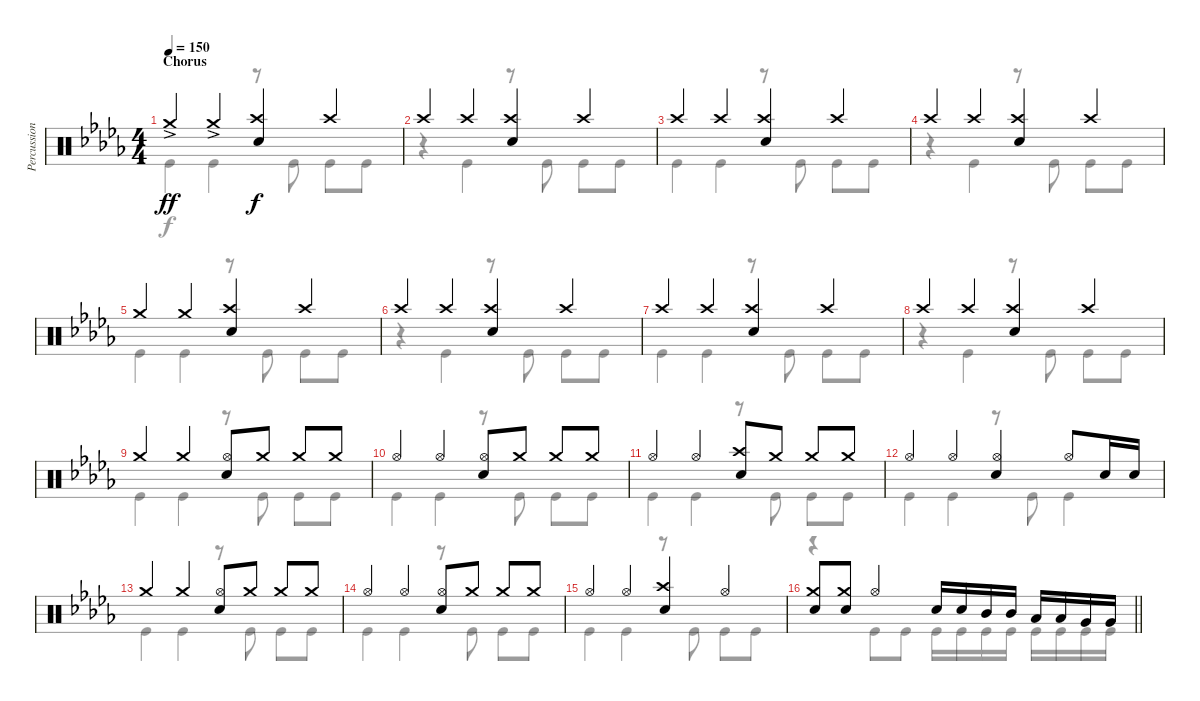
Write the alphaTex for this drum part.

\track ("Percussion" "Percussion") {instrument percussion}
\staff {score}
\articulation defaults
\voice
\ts (4 4)
\section ("" "Chorus")
\tempo 150
\clef neutral
\ks bbminor "Crash medium (hit)"{ac}.4{dy ff} "Crash medium (hit)"{ac}.4
("Crash high (hit)" "Electric Snare (hit)").4{dy f} "Crash high (hit)".4 |
"Crash high (hit)".4 "Crash high (hit)".4 ("Crash high (hit)" "Electric Snare (hit)").4 "Crash high (hit)".4 |
"Crash high (hit)".4 "Crash high (hit)".4 ("Crash high (hit)" "Electric Snare (hit)").4 "Crash high (hit)".4 |
"Crash high (hit)".4 "Crash high (hit)".4 ("Crash high (hit)" "Electric Snare (hit)").4 "Crash high (hit)".4 |
"Crash medium (hit)".4 "Crash medium (hit)".4 ("Crash high (hit)" "Electric Snare (hit)").4 "Crash high (hit)".4 |
"Crash high (hit)".4 "Crash high (hit)".4 ("Crash high (hit)" "Electric Snare (hit)").4 "Crash high (hit)".4 |
"Crash high (hit)".4 "Crash high (hit)".4 ("Crash high (hit)" "Electric Snare (hit)").4 "Crash high (hit)".4 |
"Crash high (hit)".4 "Crash high (hit)".4 ("Crash high (hit)" "Electric Snare (hit)").4 "Crash high (hit)".4 |
"Crash medium (hit)".4 "Crash medium (hit)".4 ("Hi-Hat (open)" "Electric Snare (hit)").8 "Crash medium (hit)".8 "Crash medium (hit)".8 "Crash medium (hit)".8 |
"Hi-Hat (open)".4 "Hi-Hat (open)".4 ("Hi-Hat (open)" "Electric Snare (hit)").8 "Crash medium (hit)".8 "Crash medium (hit)".8 "Crash medium (hit)".8 |
"Hi-Hat (open)".4 "Hi-Hat (open)".4 ("Crash high (hit)" "Electric Snare (hit)").8 "Crash medium (hit)".8 "Crash medium (hit)".8 "Crash medium (hit)".8 |
"Hi-Hat (open)".4 "Hi-Hat (open)".4 ("Hi-Hat (open)" "Electric Snare (hit)").4 "Hi-Hat (open)".8 "Electric Snare (hit)".16 "Electric Snare (hit)".16 |
"Crash medium (hit)".4 "Crash medium (hit)".4 ("Hi-Hat (open)" "Electric Snare (hit)").8 "Crash medium (hit)".8 "Crash medium (hit)".8 "Crash medium (hit)".8 |
"Hi-Hat (open)".4 "Hi-Hat (open)".4 ("Hi-Hat (open)" "Electric Snare (hit)").8 "Crash medium (hit)".8 "Crash medium (hit)".8 "Crash medium (hit)".8 |
"Hi-Hat (open)".4 "Hi-Hat (open)".4 ("Crash high (hit)" "Electric Snare (hit)").4 "Hi-Hat (open)".4 |
\barLineRight lightlight
("Crash medium (hit)" "Electric Snare (hit)").8 ("Crash medium (hit)" "Electric Snare (hit)").8 "Hi-Hat (open)".4 "Electric Snare (hit)".16 "Electric Snare (hit)".16 "Mid Tom (hit)".16 "Mid Tom (hit)".16 "Low Tom (hit)".16 "Low Tom (hit)".16 "Very Low Tom (hit)".16 "Very Low Tom (hit)".16
\voice
\clef neutral
\ottava regular
\simile none
\ks bbminor "Kick (hit)".4{dy f} "Kick (hit)".4
r.8 "Kick (hit)".8 "Kick (hit)".8 "Kick (hit)".8 |
r.4 "Kick (hit)".4 r.8 "Kick (hit)".8 "Kick (hit)".8 "Kick (hit)".8 |
"Kick (hit)".4 "Kick (hit)".4 r.8 "Kick (hit)".8 "Kick (hit)".8 "Kick (hit)".8 |
r.4 "Kick (hit)".4 r.8 "Kick (hit)".8 "Kick (hit)".8 "Kick (hit)".8 |
"Kick (hit)".4 "Kick (hit)".4 r.8 "Kick (hit)".8 "Kick (hit)".8 "Kick (hit)".8 |
r.4 "Kick (hit)".4 r.8 "Kick (hit)".8 "Kick (hit)".8 "Kick (hit)".8 |
"Kick (hit)".4 "Kick (hit)".4 r.8 "Kick (hit)".8 "Kick (hit)".8 "Kick (hit)".8 |
r.4 "Kick (hit)".4 r.8 "Kick (hit)".8 "Kick (hit)".8 "Kick (hit)".8 |
"Kick (hit)".4 "Kick (hit)".4 r.8 "Kick (hit)".8 "Kick (hit)".8 "Kick (hit)".8 |
"Kick (hit)".4 "Kick (hit)".4 r.8 "Kick (hit)".8 "Kick (hit)".8 "Kick (hit)".8 |
"Kick (hit)".4 "Kick (hit)".4 r.8 "Kick (hit)".8 "Kick (hit)".8 "Kick (hit)".8 |
"Kick (hit)".4 "Kick (hit)".4 r.8 "Kick (hit)".8 "Kick (hit)".4 |
"Kick (hit)".4 "Kick (hit)".4 r.8 "Kick (hit)".8 "Kick (hit)".8 "Kick (hit)".8 |
"Kick (hit)".4 "Kick (hit)".4 r.8 "Kick (hit)".8 "Kick (hit)".8 "Kick (hit)".8 |
"Kick (hit)".4 "Kick (hit)".4 r.8 "Kick (hit)".8 "Kick (hit)".8 "Kick (hit)".8 |
\barLineRight lightlight
r.4 "Kick (hit)".8 "Kick (hit)".8 "Kick (hit)".16 "Kick (hit)".16 "Kick (hit)".16 "Kick (hit)".16 "Kick (hit)".16 "Kick (hit)".16 "Kick (hit)".16 "Kick (hit)".16
